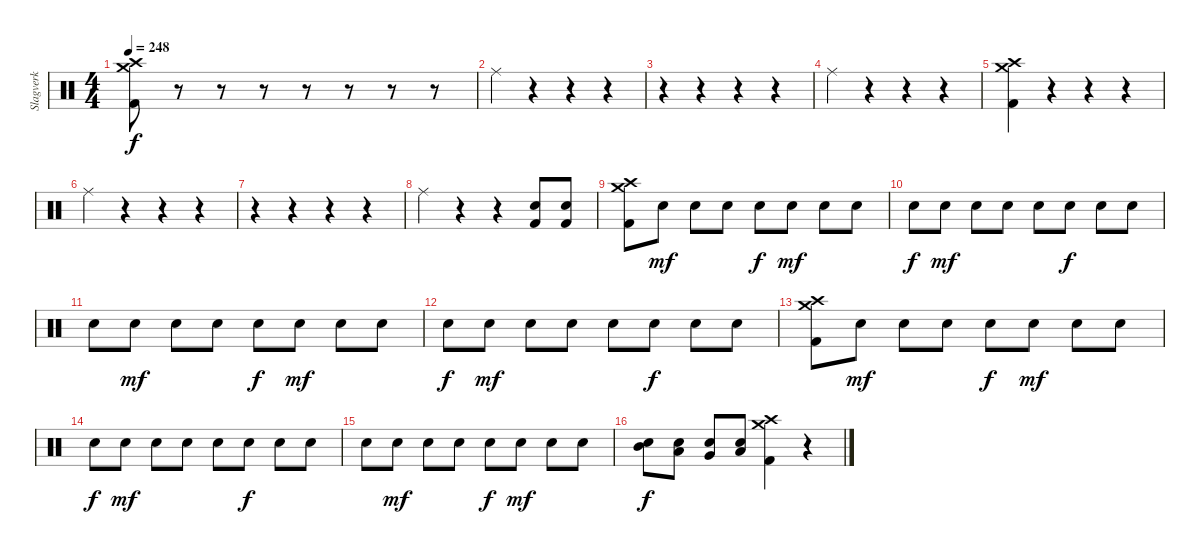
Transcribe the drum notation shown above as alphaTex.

\track ("Slagverk" "Slagverk") {instrument percussion}
\staff {score}
\articulation defaults
\ts (4 4)
\tempo 248
\clef neutral
\ks c
("Crash medium (hit)" "Crash high (hit)" "Kick (hit) 2").8{dy f} r.8 r.8 r.8 r.8 r.8 r.8 r.8 |
"Ride (middle)".4 r.4 r.4 r.4 |
r.4 r.4 r.4 r.4 |
"Ride (middle)".4 r.4 r.4 r.4 |
("Crash medium (hit)" "Crash high (hit)" "Kick (hit) 2").4 r.4 r.4 r.4 |
"Ride (middle)".4 r.4 r.4 r.4 |
r.4 r.4 r.4 r.4 |
"Ride (middle)".4 r.4 r.4 ("Snare (hit) 2" "Kick (hit) 2").8 ("Snare (hit) 2" "Kick (hit) 2").8 |
("Crash medium (hit)" "Crash high (hit)" "Kick (hit) 2").8 "Snare (hit) 2".8{dy mf} "Snare (hit) 2".8 "Snare (hit) 2".8 "Snare (hit) 2".8{dy f} "Snare (hit) 2".8{dy mf} "Snare (hit) 2".8 "Snare (hit) 2".8 |
"Snare (hit) 2".8{dy f} "Snare (hit) 2".8{dy mf} "Snare (hit) 2".8 "Snare (hit) 2".8 "Snare (hit) 2".8 "Snare (hit) 2".8{dy f} "Snare (hit) 2".8 "Snare (hit) 2".8 |
"Snare (hit) 2".8 "Snare (hit) 2".8{dy mf} "Snare (hit) 2".8 "Snare (hit) 2".8 "Snare (hit) 2".8{dy f} "Snare (hit) 2".8{dy mf} "Snare (hit) 2".8 "Snare (hit) 2".8 |
"Snare (hit) 2".8{dy f} "Snare (hit) 2".8{dy mf} "Snare (hit) 2".8 "Snare (hit) 2".8 "Snare (hit) 2".8 "Snare (hit) 2".8{dy f} "Snare (hit) 2".8 "Snare (hit) 2".8 |
("Crash medium (hit)" "Crash high (hit)" "Kick (hit) 2").8 "Snare (hit) 2".8{dy mf} "Snare (hit) 2".8 "Snare (hit) 2".8 "Snare (hit) 2".8{dy f} "Snare (hit) 2".8{dy mf} "Snare (hit) 2".8 "Snare (hit) 2".8 |
"Snare (hit) 2".8{dy f} "Snare (hit) 2".8{dy mf} "Snare (hit) 2".8 "Snare (hit) 2".8 "Snare (hit) 2".8 "Snare (hit) 2".8{dy f} "Snare (hit) 2".8 "Snare (hit) 2".8 |
"Snare (hit) 2".8 "Snare (hit) 2".8{dy mf} "Snare (hit) 2".8 "Snare (hit) 2".8 "Snare (hit) 2".8{dy f} "Snare (hit) 2".8{dy mf} "Snare (hit) 2".8 "Snare (hit) 2".8 |
("Mid Tom (hit)" "Snare (hit) 2").8{dy f} ("Low Tom (hit)" "Snare (hit) 2").8 ("Very Low Tom (hit)" "Snare (hit) 2").8 ("Low Floor Tom (hit)" "Snare (hit) 2").8 ("Crash medium (hit)" "Crash high (hit)" "Kick (hit) 2").4 r.4
